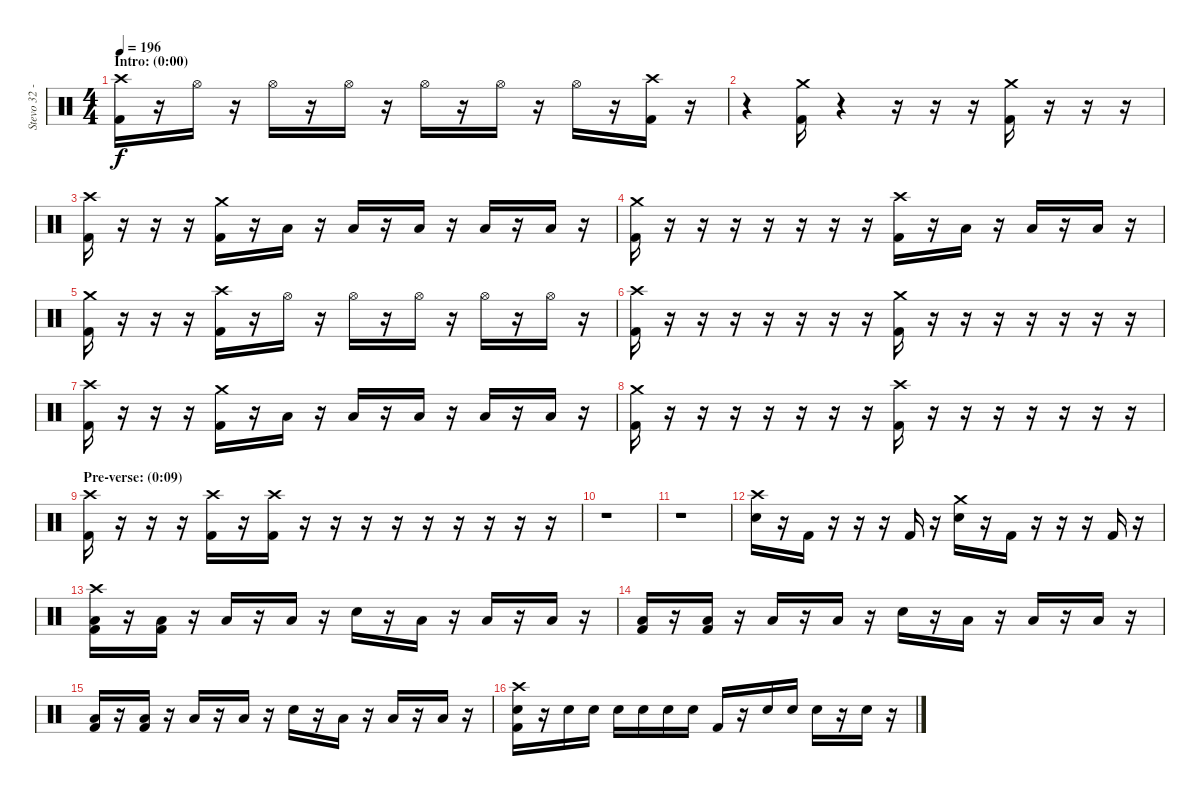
\track ("Stevo 32 - Drums" "Stevo 32 -") {instrument percussion}
\staff {score}
\articulation defaults
\ts (4 4)
\section ("" "Intro: (0:00)")
\tempo 196
\clef neutral
\ks c
("Crash high (hit)" "Kick (hit) 2").16{dy f} r.16 "Hi-Hat (open)".16 r.16 "Hi-Hat (open)".16 r.16 "Hi-Hat (open)".16 r.16 "Hi-Hat (open)".16 r.16 "Hi-Hat (open)".16 r.16 "Hi-Hat (open)".16 r.16 ("Crash high (hit)" "Kick (hit) 2").16 r.16 |
r.4 ("Crash medium (hit)" "Kick (hit) 2").16 r.4 r.16 r.16 r.16 ("Crash medium (hit)" "Kick (hit) 2").16 r.16 r.16 r.16 |
("Crash high (hit)" "Kick (hit) 2").16 r.16 r.16 r.16 ("Crash medium (hit)" "Kick (hit) 2").16 r.16 "Low Tom (hit)".16 r.16 "Low Tom (hit)".16 r.16 "Low Tom (hit)".16 r.16 "Low Tom (hit)".16 r.16 "Low Tom (hit)".16 r.16 |
("Crash medium (hit)" "Kick (hit) 2").16 r.16 r.16 r.16 r.16 r.16 r.16 r.16 ("Crash high (hit)" "Kick (hit) 2").16 r.16 "Low Tom (hit)".16 r.16 "Low Tom (hit)".16 r.16 "Low Tom (hit)".16 r.16 |
("Crash medium (hit)" "Kick (hit) 2").16 r.16 r.16 r.16 ("Crash high (hit)" "Kick (hit) 2").16 r.16 "Hi-Hat (open)".16 r.16 "Hi-Hat (open)".16 r.16 "Hi-Hat (open)".16 r.16 "Hi-Hat (open)".16 r.16 "Hi-Hat (open)".16 r.16 |
("Crash high (hit)" "Kick (hit) 2").16 r.16 r.16 r.16 r.16 r.16 r.16 r.16 ("Crash medium (hit)" "Kick (hit) 2").16 r.16 r.16 r.16 r.16 r.16 r.16 r.16 |
("Crash high (hit)" "Kick (hit) 2").16 r.16 r.16 r.16 ("Crash medium (hit)" "Kick (hit) 2").16 r.16 "Low Tom (hit)".16 r.16 "Low Tom (hit)".16 r.16 "Low Tom (hit)".16 r.16 "Low Tom (hit)".16 r.16 "Low Tom (hit)".16 r.16 |
("Crash medium (hit)" "Kick (hit) 2").16 r.16 r.16 r.16 r.16 r.16 r.16 r.16 ("Crash high (hit)" "Kick (hit) 2").16 r.16 r.16 r.16 r.16 r.16 r.16 r.16 |
\section ("" "Pre-verse: (0:09)")
("Crash high (hit)" "Kick (hit) 2").16 r.16 r.16 r.16 ("Crash high (hit)" "Kick (hit) 2").16 r.16 ("Crash high (hit)" "Kick (hit) 2").16 r.16 r.16 r.16 r.16 r.16 r.16 r.16 r.16 r.16 |
r.1 |
r.1 |
("Crash high (hit)" "Snare (hit) 2").16 r.16 "Kick (hit) 2".16 r.16 r.16 r.16 "Kick (hit) 2".16 r.16 ("Crash medium (hit)" "Snare (hit) 2").16 r.16 "Kick (hit) 2".16 r.16 r.16 r.16 "Kick (hit) 2".16 r.16 |
("Crash high (hit)" "Low Tom (hit)" "Kick (hit) 2").16 r.16 ("Low Tom (hit)" "Kick (hit) 2").16 r.16 "Low Tom (hit)".16 r.16 "Low Tom (hit)".16 r.16 "Snare (hit) 2".16 r.16 "Low Tom (hit)".16 r.16 "Low Tom (hit)".16 r.16 "Low Tom (hit)".16 r.16 |
("Low Tom (hit)" "Kick (hit) 2").16 r.16 ("Low Tom (hit)" "Kick (hit) 2").16 r.16 "Low Tom (hit)".16 r.16 "Low Tom (hit)".16 r.16 "Snare (hit) 2".16 r.16 "Low Tom (hit)".16 r.16 "Low Tom (hit)".16 r.16 "Low Tom (hit)".16 r.16 |
("Low Tom (hit)" "Kick (hit) 2").16 r.16 ("Low Tom (hit)" "Kick (hit) 2").16 r.16 "Low Tom (hit)".16 r.16 "Low Tom (hit)".16 r.16 "Snare (hit) 2".16 r.16 "Low Tom (hit)".16 r.16 "Low Tom (hit)".16 r.16 "Low Tom (hit)".16 r.16 |
("Crash high (hit)" "Snare (hit) 2" "Kick (hit) 2").16 r.16 "Snare (hit) 2".16 "Snare (hit) 2".16 "Snare (hit) 2".16 "Snare (hit) 2".16 "Snare (hit) 2".16 "Snare (hit) 2".16 "Kick (hit) 2".16 r.16 "Snare (hit) 2".16 "Snare (hit) 2".16 "Snare (hit) 2".16 r.16 "Snare (hit) 2".16 r.16
